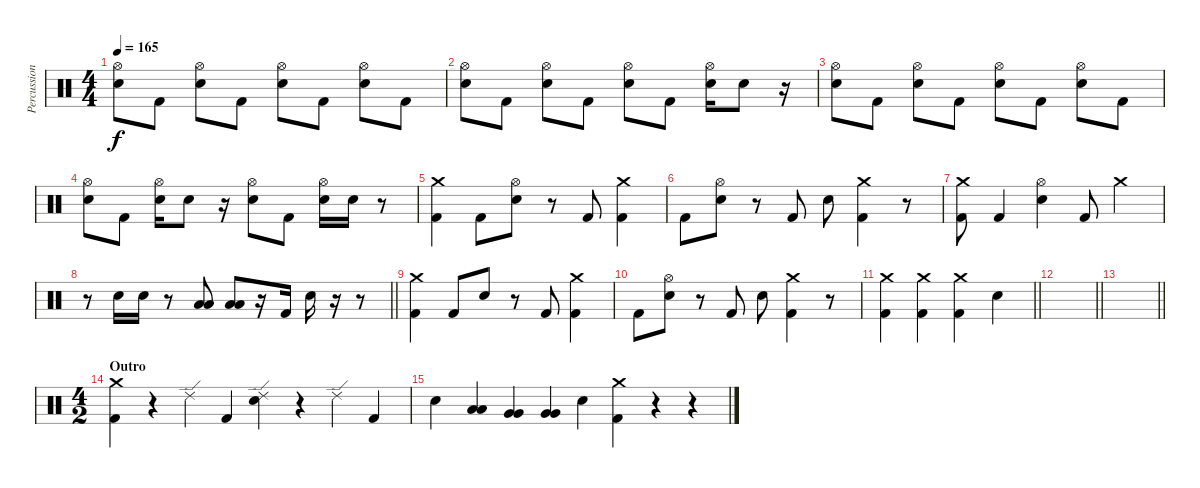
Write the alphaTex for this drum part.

\track ("Percussion" "Percussion") {instrument percussion}
\staff {score}
\articulation defaults
\ts (4 4)
\tempo 165
\clef neutral
\ks c
("Hi-Hat (open)" "Electric Snare (hit)").8{dy f} "Kick (hit) 2".8 ("Hi-Hat (open)" "Electric Snare (hit)").8 "Kick (hit) 2".8 ("Hi-Hat (open)" "Electric Snare (hit)").8 "Kick (hit) 2".8 ("Hi-Hat (open)" "Electric Snare (hit)").8 "Kick (hit) 2".8 |
("Hi-Hat (open)" "Electric Snare (hit)").8 "Kick (hit) 2".8 ("Hi-Hat (open)" "Electric Snare (hit)").8 "Kick (hit) 2".8 ("Hi-Hat (open)" "Electric Snare (hit)").8 "Kick (hit) 2".8 ("Hi-Hat (open)" "Electric Snare (hit)").16 "Electric Snare (hit)".8 r.16 |
("Hi-Hat (open)" "Electric Snare (hit)").8 "Kick (hit) 2".8 ("Hi-Hat (open)" "Electric Snare (hit)").8 "Kick (hit) 2".8 ("Hi-Hat (open)" "Electric Snare (hit)").8 "Kick (hit) 2".8 ("Hi-Hat (open)" "Electric Snare (hit)").8 "Kick (hit) 2".8 |
("Hi-Hat (open)" "Electric Snare (hit)").8 "Kick (hit) 2".8 ("Hi-Hat (open)" "Electric Snare (hit)").16 "Electric Snare (hit)".8 r.16 ("Hi-Hat (open)" "Electric Snare (hit)").8 "Kick (hit) 2".8 ("Hi-Hat (open)" "Electric Snare (hit)").16 "Electric Snare (hit)".16 r.8 |
("Crash medium (hit)" "Kick (hit) 2").4 "Kick (hit) 2".8 ("Hi-Hat (open)" "Electric Snare (hit)").8 r.8 "Kick (hit) 2".8 ("Crash medium (hit)" "Kick (hit) 2").4 |
"Kick (hit) 2".8 ("Hi-Hat (open)" "Electric Snare (hit)").8 r.8 "Kick (hit) 2".8 "Electric Snare (hit)".8 ("Crash medium (hit)" "Kick (hit) 2").4 r.8 |
("Crash medium (hit)" "Kick (hit) 2").8 "Kick (hit) 2".4 ("Hi-Hat (open)" "Electric Snare (hit)").4 "Kick (hit) 2".8 "Crash medium (hit)".4 |
\barLineRight lightlight
r.8 "Electric Snare (hit)".16 "Electric Snare (hit)".16 r.8 ("Low Tom (hit)" "Low Tom (hit)").8 ("Low Tom (hit)" "Low Tom (hit)").8 r.16 "Kick (hit) 2".16 "Electric Snare (hit)".16 r.16 r.8 |
("Crash medium (hit)" "Kick (hit) 2").4 "Kick (hit) 2".8 "Electric Snare (hit)".8 r.8 "Kick (hit) 2".8 ("Crash medium (hit)" "Kick (hit) 2").4 |
"Kick (hit) 2".8 ("Hi-Hat (open)" "Electric Snare (hit)").8 r.8 "Kick (hit) 2".8 "Electric Snare (hit)".8 ("Crash medium (hit)" "Kick (hit) 2").4 r.8 |
\barLineRight lightlight
("Crash medium (hit)" "Kick (hit) 2").4 ("Crash medium (hit)" "Kick (hit) 2").4 ("Crash medium (hit)" "Kick (hit) 2").4 "Electric Snare (hit)".4 |
\barLineRight lightlight
|
\barLineRight lightlight
|
\ts (4 2)
\section ("" "Outro")
("Crash medium (hit)" "Kick (hit) 2").4 r.4 "Ride (edge) 2".4 "Kick (hit) 2".4 ("Ride (edge) 2" "Electric Snare (hit)").4 r.4 "Ride (edge) 2".4 "Kick (hit) 2".4 |
"Electric Snare (hit)".4 ("Low Tom (hit)" "Low Tom (hit)").4 ("Very Low Tom (hit)" "Very Low Tom (hit)").4 ("Very Low Tom (hit)" "Very Low Tom (hit)").4 "Electric Snare (hit)".4 ("Crash medium (hit)" "Kick (hit) 2").4 r.4 r.4
